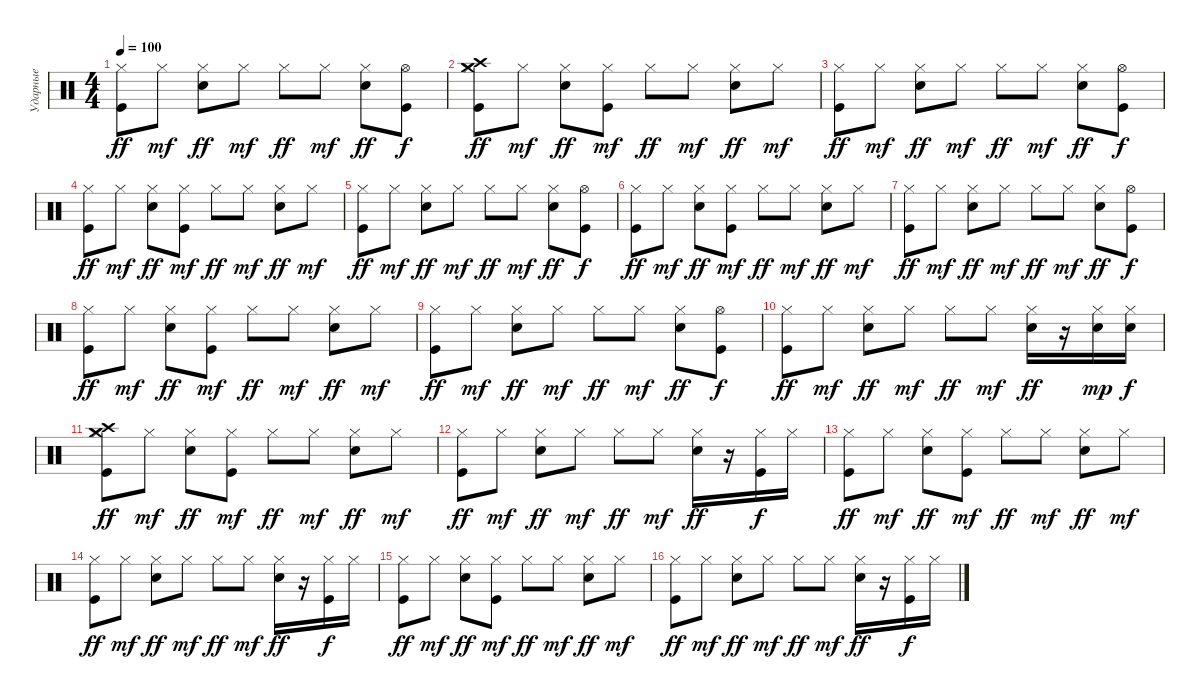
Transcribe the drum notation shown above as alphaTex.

\track ("Ударные" "Ударные") {instrument percussion}
\staff {score}
\articulation defaults
\ts (4 4)
\tempo 100
\clef neutral
\ks c
("Kick (hit)" "Hi-Hat (closed)").8{dy ff} "Hi-Hat (closed)".8{dy mf} ("Electric Snare (hit)" "Hi-Hat (closed)").8{dy ff} "Hi-Hat (closed)".8{dy mf} "Hi-Hat (closed)".8{dy ff} "Hi-Hat (closed)".8{dy mf} ("Electric Snare (hit)" "Hi-Hat (closed)").8{dy ff} ("Kick (hit)" "Hi-Hat (open)").8{dy f} |
("Kick (hit)" "Hi-Hat (closed)" "Crash high (hit)" "Crash medium (hit)").8{dy ff} "Hi-Hat (closed)".8{dy mf} ("Electric Snare (hit)" "Hi-Hat (closed)").8{dy ff} ("Kick (hit)" "Hi-Hat (closed)").8{dy mf} "Hi-Hat (closed)".8{dy ff} "Hi-Hat (closed)".8{dy mf} ("Electric Snare (hit)" "Hi-Hat (closed)").8{dy ff} "Hi-Hat (closed)".8{dy mf} |
("Kick (hit)" "Hi-Hat (closed)").8{dy ff} "Hi-Hat (closed)".8{dy mf} ("Electric Snare (hit)" "Hi-Hat (closed)").8{dy ff} "Hi-Hat (closed)".8{dy mf} "Hi-Hat (closed)".8{dy ff} "Hi-Hat (closed)".8{dy mf} ("Electric Snare (hit)" "Hi-Hat (closed)").8{dy ff} ("Kick (hit)" "Hi-Hat (open)").8{dy f} |
("Kick (hit)" "Hi-Hat (closed)").8{dy ff} "Hi-Hat (closed)".8{dy mf} ("Electric Snare (hit)" "Hi-Hat (closed)").8{dy ff} ("Kick (hit)" "Hi-Hat (closed)").8{dy mf} "Hi-Hat (closed)".8{dy ff} "Hi-Hat (closed)".8{dy mf} ("Electric Snare (hit)" "Hi-Hat (closed)").8{dy ff} "Hi-Hat (closed)".8{dy mf} |
("Kick (hit)" "Hi-Hat (closed)").8{dy ff} "Hi-Hat (closed)".8{dy mf} ("Electric Snare (hit)" "Hi-Hat (closed)").8{dy ff} "Hi-Hat (closed)".8{dy mf} "Hi-Hat (closed)".8{dy ff} "Hi-Hat (closed)".8{dy mf} ("Electric Snare (hit)" "Hi-Hat (closed)").8{dy ff} ("Kick (hit)" "Hi-Hat (open)").8{dy f} |
("Kick (hit)" "Hi-Hat (closed)").8{dy ff} "Hi-Hat (closed)".8{dy mf} ("Electric Snare (hit)" "Hi-Hat (closed)").8{dy ff} ("Kick (hit)" "Hi-Hat (closed)").8{dy mf} "Hi-Hat (closed)".8{dy ff} "Hi-Hat (closed)".8{dy mf} ("Electric Snare (hit)" "Hi-Hat (closed)").8{dy ff} "Hi-Hat (closed)".8{dy mf} |
("Kick (hit)" "Hi-Hat (closed)").8{dy ff} "Hi-Hat (closed)".8{dy mf} ("Electric Snare (hit)" "Hi-Hat (closed)").8{dy ff} "Hi-Hat (closed)".8{dy mf} "Hi-Hat (closed)".8{dy ff} "Hi-Hat (closed)".8{dy mf} ("Electric Snare (hit)" "Hi-Hat (closed)").8{dy ff} ("Kick (hit)" "Hi-Hat (open)").8{dy f} |
("Kick (hit)" "Hi-Hat (closed)").8{dy ff} "Hi-Hat (closed)".8{dy mf} ("Electric Snare (hit)" "Hi-Hat (closed)").8{dy ff} ("Kick (hit)" "Hi-Hat (closed)").8{dy mf} "Hi-Hat (closed)".8{dy ff} "Hi-Hat (closed)".8{dy mf} ("Electric Snare (hit)" "Hi-Hat (closed)").8{dy ff} "Hi-Hat (closed)".8{dy mf} |
("Kick (hit)" "Hi-Hat (closed)").8{dy ff} "Hi-Hat (closed)".8{dy mf} ("Electric Snare (hit)" "Hi-Hat (closed)").8{dy ff} "Hi-Hat (closed)".8{dy mf} "Hi-Hat (closed)".8{dy ff} "Hi-Hat (closed)".8{dy mf} ("Electric Snare (hit)" "Hi-Hat (closed)").8{dy ff} ("Kick (hit)" "Hi-Hat (open)").8{dy f} |
("Kick (hit)" "Hi-Hat (closed)").8{dy ff} "Hi-Hat (closed)".8{dy mf} ("Electric Snare (hit)" "Hi-Hat (closed)").8{dy ff} "Hi-Hat (closed)".8{dy mf} "Hi-Hat (closed)".8{dy ff} "Hi-Hat (closed)".8{dy mf} ("Electric Snare (hit)" "Hi-Hat (closed)").16{dy ff} r.16 ("Electric Snare (hit)" "Hi-Hat (closed)").16{dy mp} ("Electric Snare (hit)" "Hi-Hat (closed)").16{dy f} |
("Kick (hit)" "Hi-Hat (closed)" "Crash high (hit)" "Crash medium (hit)").8{dy ff} "Hi-Hat (closed)".8{dy mf} ("Electric Snare (hit)" "Hi-Hat (closed)").8{dy ff} ("Kick (hit)" "Hi-Hat (closed)").8{dy mf} "Hi-Hat (closed)".8{dy ff} "Hi-Hat (closed)".8{dy mf} ("Electric Snare (hit)" "Hi-Hat (closed)").8{dy ff} "Hi-Hat (closed)".8{dy mf} |
("Kick (hit)" "Hi-Hat (closed)").8{dy ff} "Hi-Hat (closed)".8{dy mf} ("Electric Snare (hit)" "Hi-Hat (closed)").8{dy ff} "Hi-Hat (closed)".8{dy mf} "Hi-Hat (closed)".8{dy ff} "Hi-Hat (closed)".8{dy mf} ("Electric Snare (hit)" "Hi-Hat (closed)").16{dy ff} r.16 ("Kick (hit)" "Hi-Hat (closed)").16{dy f} "Hi-Hat (closed)".16 |
("Kick (hit)" "Hi-Hat (closed)").8{dy ff} "Hi-Hat (closed)".8{dy mf} ("Electric Snare (hit)" "Hi-Hat (closed)").8{dy ff} ("Kick (hit)" "Hi-Hat (closed)").8{dy mf} "Hi-Hat (closed)".8{dy ff} "Hi-Hat (closed)".8{dy mf} ("Electric Snare (hit)" "Hi-Hat (closed)").8{dy ff} "Hi-Hat (closed)".8{dy mf} |
("Kick (hit)" "Hi-Hat (closed)").8{dy ff} "Hi-Hat (closed)".8{dy mf} ("Electric Snare (hit)" "Hi-Hat (closed)").8{dy ff} "Hi-Hat (closed)".8{dy mf} "Hi-Hat (closed)".8{dy ff} "Hi-Hat (closed)".8{dy mf} ("Electric Snare (hit)" "Hi-Hat (closed)").16{dy ff} r.16 ("Kick (hit)" "Hi-Hat (closed)").16{dy f} "Hi-Hat (closed)".16 |
("Kick (hit)" "Hi-Hat (closed)").8{dy ff} "Hi-Hat (closed)".8{dy mf} ("Electric Snare (hit)" "Hi-Hat (closed)").8{dy ff} ("Kick (hit)" "Hi-Hat (closed)").8{dy mf} "Hi-Hat (closed)".8{dy ff} "Hi-Hat (closed)".8{dy mf} ("Electric Snare (hit)" "Hi-Hat (closed)").8{dy ff} "Hi-Hat (closed)".8{dy mf} |
("Kick (hit)" "Hi-Hat (closed)").8{dy ff} "Hi-Hat (closed)".8{dy mf} ("Electric Snare (hit)" "Hi-Hat (closed)").8{dy ff} "Hi-Hat (closed)".8{dy mf} "Hi-Hat (closed)".8{dy ff} "Hi-Hat (closed)".8{dy mf} ("Electric Snare (hit)" "Hi-Hat (closed)").16{dy ff} r.16 ("Kick (hit)" "Hi-Hat (closed)").16{dy f} "Hi-Hat (closed)".16
